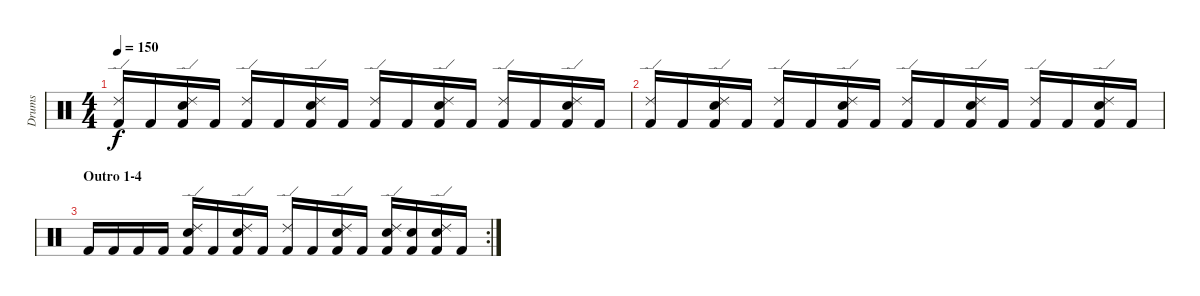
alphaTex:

\track ("Drums" "Drums") {instrument percussion}
\staff {score}
\articulation defaults
\ts (4 4)
\tempo 150
\clef neutral
\ks c
("Kick (hit) 2" "Ride (edge) 2").16{dy f} "Kick (hit) 2".16 ("Kick (hit) 2" "Snare (hit) 2" "Ride (edge) 2").16 "Kick (hit) 2".16 ("Kick (hit) 2" "Ride (edge) 2").16 "Kick (hit) 2".16 ("Kick (hit) 2" "Snare (hit) 2" "Ride (edge) 2").16 "Kick (hit) 2".16 ("Kick (hit) 2" "Ride (edge) 2").16 "Kick (hit) 2".16 ("Kick (hit) 2" "Snare (hit) 2" "Ride (edge) 2").16 "Kick (hit) 2".16 ("Kick (hit) 2" "Ride (edge) 2").16 "Kick (hit) 2".16 ("Kick (hit) 2" "Snare (hit) 2" "Ride (edge) 2").16 "Kick (hit) 2".16 |
("Kick (hit) 2" "Ride (edge) 2").16 "Kick (hit) 2".16 ("Kick (hit) 2" "Snare (hit) 2" "Ride (edge) 2").16 "Kick (hit) 2".16 ("Kick (hit) 2" "Ride (edge) 2").16 "Kick (hit) 2".16 ("Kick (hit) 2" "Snare (hit) 2" "Ride (edge) 2").16 "Kick (hit) 2".16 ("Kick (hit) 2" "Ride (edge) 2").16 "Kick (hit) 2".16 ("Kick (hit) 2" "Snare (hit) 2" "Ride (edge) 2").16 "Kick (hit) 2".16 ("Kick (hit) 2" "Ride (edge) 2").16 "Kick (hit) 2".16 ("Kick (hit) 2" "Snare (hit) 2" "Ride (edge) 2").16 "Kick (hit) 2".16 |
\rc 2
\section ("" "Outro 1-4")
"Kick (hit) 2".16 "Kick (hit) 2".16 "Kick (hit) 2".16 "Kick (hit) 2".16 ("Kick (hit) 2" "Snare (hit) 2" "Ride (edge) 2").16 "Kick (hit) 2".16 ("Kick (hit) 2" "Snare (hit) 2" "Ride (edge) 2").16 "Kick (hit) 2".16 ("Kick (hit) 2" "Ride (edge) 2").16 "Kick (hit) 2".16 ("Kick (hit) 2" "Snare (hit) 2" "Ride (edge) 2").16 "Kick (hit) 2".16 ("Kick (hit) 2" "Snare (hit) 2" "Ride (edge) 2").16 ("Kick (hit) 2" "Snare (hit) 2").16 ("Kick (hit) 2" "Snare (hit) 2" "Ride (edge) 2").16 "Kick (hit) 2".16
